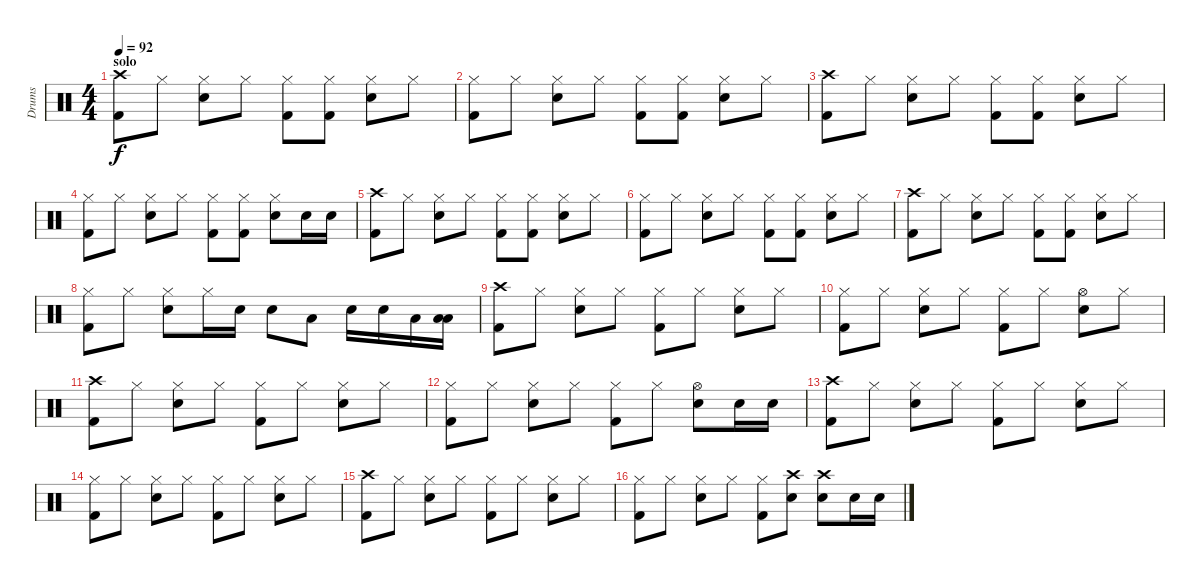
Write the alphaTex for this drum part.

\track ("Drums" "Drums") {instrument percussion}
\staff {score}
\articulation defaults
\ts (4 4)
\section ("" "solo")
\tempo 92
\clef neutral
\ks c
("Kick (hit) 2" "Crash high (hit)").8{dy f} "Hi-Hat (closed)".8 ("Hi-Hat (closed)" "Snare (hit) 2").8 "Hi-Hat (closed)".8 ("Hi-Hat (closed)" "Kick (hit) 2").8 ("Hi-Hat (closed)" "Kick (hit) 2").8 ("Hi-Hat (closed)" "Snare (hit) 2").8 "Hi-Hat (closed)".8 |
("Hi-Hat (closed)" "Kick (hit) 2").8 "Hi-Hat (closed)".8 ("Hi-Hat (closed)" "Snare (hit) 2").8 "Hi-Hat (closed)".8 ("Hi-Hat (closed)" "Kick (hit) 2").8 ("Hi-Hat (closed)" "Kick (hit) 2").8 ("Hi-Hat (closed)" "Snare (hit) 2").8 "Hi-Hat (closed)".8 |
("Kick (hit) 2" "Crash high (hit)").8 "Hi-Hat (closed)".8 ("Hi-Hat (closed)" "Snare (hit) 2").8 "Hi-Hat (closed)".8 ("Hi-Hat (closed)" "Kick (hit) 2").8 ("Hi-Hat (closed)" "Kick (hit) 2").8 ("Hi-Hat (closed)" "Snare (hit) 2").8 "Hi-Hat (closed)".8 |
("Hi-Hat (closed)" "Kick (hit) 2").8 "Hi-Hat (closed)".8 ("Hi-Hat (closed)" "Snare (hit) 2").8 "Hi-Hat (closed)".8 ("Hi-Hat (closed)" "Kick (hit) 2").8 ("Hi-Hat (closed)" "Kick (hit) 2").8 ("Hi-Hat (closed)" "Snare (hit) 2").8 "Snare (hit) 2".16 "Snare (hit) 2".16 |
("Kick (hit) 2" "Crash high (hit)").8 "Hi-Hat (closed)".8 ("Hi-Hat (closed)" "Snare (hit) 2").8 "Hi-Hat (closed)".8 ("Hi-Hat (closed)" "Kick (hit) 2").8 ("Hi-Hat (closed)" "Kick (hit) 2").8 ("Hi-Hat (closed)" "Snare (hit) 2").8 "Hi-Hat (closed)".8 |
("Hi-Hat (closed)" "Kick (hit) 2").8 "Hi-Hat (closed)".8 ("Hi-Hat (closed)" "Snare (hit) 2").8 "Hi-Hat (closed)".8 ("Hi-Hat (closed)" "Kick (hit) 2").8 ("Hi-Hat (closed)" "Kick (hit) 2").8 ("Hi-Hat (closed)" "Snare (hit) 2").8 "Hi-Hat (closed)".8 |
("Kick (hit) 2" "Crash high (hit)").8 "Hi-Hat (closed)".8 ("Hi-Hat (closed)" "Snare (hit) 2").8 "Hi-Hat (closed)".8 ("Hi-Hat (closed)" "Kick (hit) 2").8 ("Hi-Hat (closed)" "Kick (hit) 2").8 ("Hi-Hat (closed)" "Snare (hit) 2").8 "Hi-Hat (closed)".8 |
("Hi-Hat (closed)" "Kick (hit) 2").8 "Hi-Hat (closed)".8 ("Hi-Hat (closed)" "Snare (hit) 2").8 "Hi-Hat (closed)".16 "Snare (hit) 2".16 "Snare (hit) 2".8 "Low Tom (hit)".8 "Snare (hit) 2".16 "Snare (hit) 2".16 "Low Tom (hit)".16 ("Low Tom (hit)" "Low Floor Tom (hit)").16 |
("Kick (hit) 2" "Crash high (hit)").8 "Hi-Hat (closed)".8 ("Hi-Hat (closed)" "Snare (hit) 2").8 "Hi-Hat (closed)".8 ("Hi-Hat (closed)" "Kick (hit) 2").8 "Hi-Hat (closed)".8 ("Hi-Hat (closed)" "Snare (hit) 2").8 "Hi-Hat (closed)".8 |
("Hi-Hat (closed)" "Kick (hit) 2").8 "Hi-Hat (closed)".8 ("Hi-Hat (closed)" "Snare (hit) 2").8 "Hi-Hat (closed)".8 ("Hi-Hat (closed)" "Kick (hit) 2").8 "Hi-Hat (closed)".8 ("Hi-Hat (open)" "Snare (hit) 2").8 "Hi-Hat (closed)".8 |
("Kick (hit) 2" "Crash high (hit)").8 "Hi-Hat (closed)".8 ("Hi-Hat (closed)" "Snare (hit) 2").8 "Hi-Hat (closed)".8 ("Hi-Hat (closed)" "Kick (hit) 2").8 "Hi-Hat (closed)".8 ("Hi-Hat (closed)" "Snare (hit) 2").8 "Hi-Hat (closed)".8 |
("Hi-Hat (closed)" "Kick (hit) 2").8 "Hi-Hat (closed)".8 ("Hi-Hat (closed)" "Snare (hit) 2").8 "Hi-Hat (closed)".8 ("Hi-Hat (closed)" "Kick (hit) 2").8 "Hi-Hat (closed)".8 ("Hi-Hat (open)" "Snare (hit) 2").8 "Snare (hit) 2".16 "Snare (hit) 2".16 |
("Kick (hit) 2" "Crash high (hit)").8 "Hi-Hat (closed)".8 ("Hi-Hat (closed)" "Snare (hit) 2").8 "Hi-Hat (closed)".8 ("Hi-Hat (closed)" "Kick (hit) 2").8 "Hi-Hat (closed)".8 ("Hi-Hat (closed)" "Snare (hit) 2").8 "Hi-Hat (closed)".8 |
("Hi-Hat (closed)" "Kick (hit) 2").8 "Hi-Hat (closed)".8 ("Hi-Hat (closed)" "Snare (hit) 2").8 "Hi-Hat (closed)".8 ("Hi-Hat (closed)" "Kick (hit) 2").8 "Hi-Hat (closed)".8 ("Hi-Hat (closed)" "Snare (hit) 2").8 "Hi-Hat (closed)".8 |
("Kick (hit) 2" "Crash high (hit)").8 "Hi-Hat (closed)".8 ("Hi-Hat (closed)" "Snare (hit) 2").8 "Hi-Hat (closed)".8 ("Hi-Hat (closed)" "Kick (hit) 2").8 "Hi-Hat (closed)".8 ("Hi-Hat (closed)" "Snare (hit) 2").8 "Hi-Hat (closed)".8 |
("Hi-Hat (closed)" "Kick (hit) 2").8 "Hi-Hat (closed)".8 ("Hi-Hat (closed)" "Snare (hit) 2").8 "Hi-Hat (closed)".8 ("Hi-Hat (closed)" "Kick (hit) 2").8 ("Snare (hit) 2" "Crash high (hit)").8 ("Snare (hit) 2" "Crash high (hit)").8 "Snare (hit) 2".16 "Snare (hit) 2".16
